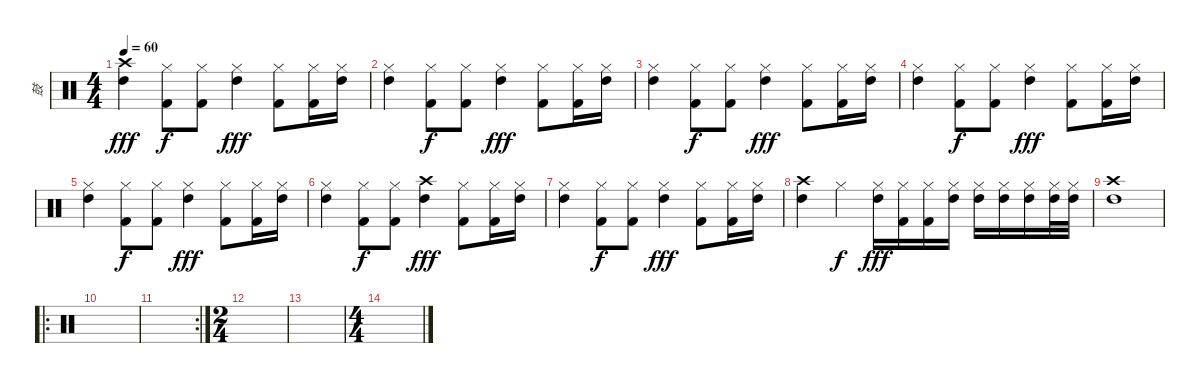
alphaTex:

\track ("鼓" "鼓") {instrument percussion}
\staff {score}
\articulation defaults
\ts (4 4)
\tempo 60
\clef neutral
\ks c
("Crash high (hit)" "High Tom (hit)").4{dy fff} ("Hi-Hat (closed)" "Kick (hit) 2").8{dy f} ("Hi-Hat (closed)" "Kick (hit) 2").8 ("Hi-Hat (closed)" "High Tom (hit)").4{dy fff} ("Hi-Hat (closed)" "Kick (hit) 2").8 ("Hi-Hat (closed)" "Kick (hit) 2").16 ("Hi-Hat (closed)" "High Tom (hit)").16 |
("Hi-Hat (closed)" "High Tom (hit)").4 ("Hi-Hat (closed)" "Kick (hit) 2").8{dy f} ("Hi-Hat (closed)" "Kick (hit) 2").8 ("Hi-Hat (closed)" "High Tom (hit)").4{dy fff} ("Hi-Hat (closed)" "Kick (hit) 2").8 ("Hi-Hat (closed)" "Kick (hit) 2").16 ("Hi-Hat (closed)" "High Tom (hit)").16 |
("Hi-Hat (closed)" "High Tom (hit)").4 ("Hi-Hat (closed)" "Kick (hit) 2").8{dy f} ("Hi-Hat (closed)" "Kick (hit) 2").8 ("Hi-Hat (closed)" "High Tom (hit)").4{dy fff} ("Hi-Hat (closed)" "Kick (hit) 2").8 ("Hi-Hat (closed)" "Kick (hit) 2").16 ("Hi-Hat (closed)" "High Tom (hit)").16 |
("Hi-Hat (closed)" "High Tom (hit)").4 ("Hi-Hat (closed)" "Kick (hit) 2").8{dy f} ("Hi-Hat (closed)" "Kick (hit) 2").8 ("Hi-Hat (closed)" "High Tom (hit)").4{dy fff} ("Hi-Hat (closed)" "Kick (hit) 2").8 ("Hi-Hat (closed)" "Kick (hit) 2").16 ("Hi-Hat (closed)" "High Tom (hit)").16 |
("Hi-Hat (closed)" "High Tom (hit)").4 ("Hi-Hat (closed)" "Kick (hit) 2").8{dy f} ("Hi-Hat (closed)" "Kick (hit) 2").8 ("Hi-Hat (closed)" "High Tom (hit)").4{dy fff} ("Hi-Hat (closed)" "Kick (hit) 2").8 ("Hi-Hat (closed)" "Kick (hit) 2").16 ("Hi-Hat (closed)" "High Tom (hit)").16 |
("Hi-Hat (closed)" "High Tom (hit)").4 ("Hi-Hat (closed)" "Kick (hit) 2").8{dy f} ("Hi-Hat (closed)" "Kick (hit) 2").8 ("Crash high (hit)" "High Tom (hit)").4{dy fff} ("Hi-Hat (closed)" "Kick (hit) 2").8 ("Hi-Hat (closed)" "Kick (hit) 2").16 ("Hi-Hat (closed)" "High Tom (hit)").16 |
("Hi-Hat (closed)" "High Tom (hit)").4 ("Hi-Hat (closed)" "Kick (hit) 2").8{dy f} ("Hi-Hat (closed)" "Kick (hit) 2").8 ("Hi-Hat (closed)" "High Tom (hit)").4{dy fff} ("Hi-Hat (closed)" "Kick (hit) 2").8 ("Hi-Hat (closed)" "Kick (hit) 2").16 ("Hi-Hat (closed)" "High Tom (hit)").16 |
("Crash high (hit)" "High Tom (hit)").4 "Hi-Hat (closed)".4{dy f} ("Hi-Hat (closed)" "High Tom (hit)").16{dy fff} ("Hi-Hat (closed)" "Kick (hit) 2").16 ("Hi-Hat (closed)" "Kick (hit) 2").16 ("Hi-Hat (closed)" "High Tom (hit)").16 ("Hi-Hat (closed)" "High Tom (hit)").16 ("Hi-Hat (closed)" "High Tom (hit)").16 ("Hi-Hat (closed)" "High Tom (hit)").16 ("Hi-Hat (closed)" "High Tom (hit)").32 ("Hi-Hat (closed)" "High Tom (hit)").32 |
("Crash high (hit)" "High Tom (hit)").1 |
\ro
|
\rc 2
|
\ts (2 4)
|
|
\ts (4 4)
